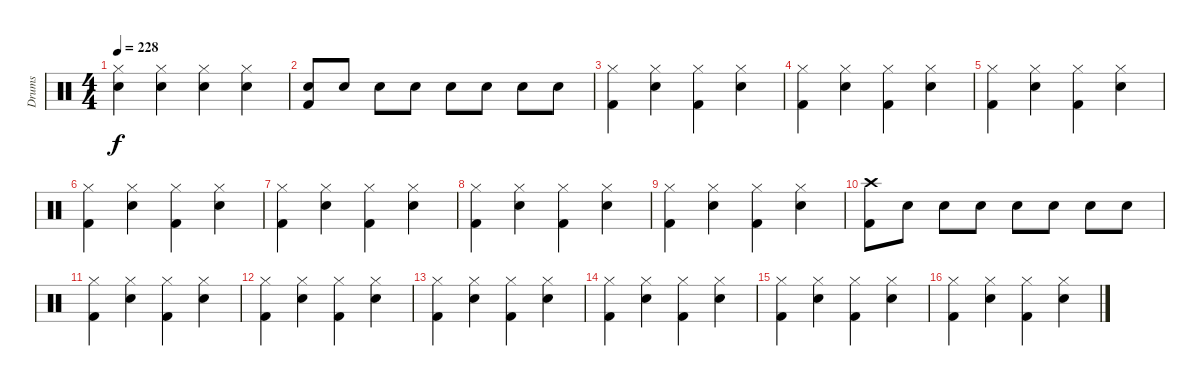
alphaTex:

\track ("Drums" "Drums") {instrument percussion}
\staff {score}
\articulation defaults
\ts (4 4)
\tempo 228
\clef neutral
\ks c
("Hi-Hat (closed)" "Electric Snare (hit)").4{dy f} ("Hi-Hat (closed)" "Electric Snare (hit)").4 ("Hi-Hat (closed)" "Electric Snare (hit)").4 ("Hi-Hat (closed)" "Electric Snare (hit)").4 |
("Electric Snare (hit)" "Kick (hit) 2").8 "Electric Snare (hit)".8 "Electric Snare (hit)".8 "Electric Snare (hit)".8 "Electric Snare (hit)".8 "Electric Snare (hit)".8 "Electric Snare (hit)".8 "Electric Snare (hit)".8 |
("Hi-Hat (closed)" "Kick (hit) 2").4 ("Hi-Hat (closed)" "Electric Snare (hit)").4 ("Hi-Hat (closed)" "Kick (hit) 2").4 ("Hi-Hat (closed)" "Electric Snare (hit)").4 |
("Hi-Hat (closed)" "Kick (hit) 2").4 ("Hi-Hat (closed)" "Electric Snare (hit)").4 ("Hi-Hat (closed)" "Kick (hit) 2").4 ("Hi-Hat (closed)" "Electric Snare (hit)").4 |
("Hi-Hat (closed)" "Kick (hit) 2").4 ("Hi-Hat (closed)" "Electric Snare (hit)").4 ("Hi-Hat (closed)" "Kick (hit) 2").4 ("Hi-Hat (closed)" "Electric Snare (hit)").4 |
("Hi-Hat (closed)" "Kick (hit) 2").4 ("Hi-Hat (closed)" "Electric Snare (hit)").4 ("Hi-Hat (closed)" "Kick (hit) 2").4 ("Hi-Hat (closed)" "Electric Snare (hit)").4 |
("Hi-Hat (closed)" "Kick (hit) 2").4 ("Hi-Hat (closed)" "Electric Snare (hit)").4 ("Hi-Hat (closed)" "Kick (hit) 2").4 ("Hi-Hat (closed)" "Electric Snare (hit)").4 |
("Hi-Hat (closed)" "Kick (hit) 2").4 ("Hi-Hat (closed)" "Electric Snare (hit)").4 ("Hi-Hat (closed)" "Kick (hit) 2").4 ("Hi-Hat (closed)" "Electric Snare (hit)").4 |
("Hi-Hat (closed)" "Kick (hit) 2").4 ("Hi-Hat (closed)" "Electric Snare (hit)").4 ("Hi-Hat (closed)" "Kick (hit) 2").4 ("Hi-Hat (closed)" "Electric Snare (hit)").4 |
("Crash high (hit)" "Kick (hit) 2").8 "Electric Snare (hit)".8 "Electric Snare (hit)".8 "Electric Snare (hit)".8 "Electric Snare (hit)".8 "Electric Snare (hit)".8 "Electric Snare (hit)".8 "Electric Snare (hit)".8 |
("Hi-Hat (closed)" "Kick (hit) 2").4 ("Hi-Hat (closed)" "Electric Snare (hit)").4 ("Hi-Hat (closed)" "Kick (hit) 2").4 ("Hi-Hat (closed)" "Electric Snare (hit)").4 |
("Hi-Hat (closed)" "Kick (hit) 2").4 ("Hi-Hat (closed)" "Electric Snare (hit)").4 ("Hi-Hat (closed)" "Kick (hit) 2").4 ("Hi-Hat (closed)" "Electric Snare (hit)").4 |
("Hi-Hat (closed)" "Kick (hit) 2").4 ("Hi-Hat (closed)" "Electric Snare (hit)").4 ("Hi-Hat (closed)" "Kick (hit) 2").4 ("Hi-Hat (closed)" "Electric Snare (hit)").4 |
("Hi-Hat (closed)" "Kick (hit) 2").4 ("Hi-Hat (closed)" "Electric Snare (hit)").4 ("Hi-Hat (closed)" "Kick (hit) 2").4 ("Hi-Hat (closed)" "Electric Snare (hit)").4 |
("Hi-Hat (closed)" "Kick (hit) 2").4 ("Hi-Hat (closed)" "Electric Snare (hit)").4 ("Hi-Hat (closed)" "Kick (hit) 2").4 ("Hi-Hat (closed)" "Electric Snare (hit)").4 |
("Hi-Hat (closed)" "Kick (hit) 2").4 ("Hi-Hat (closed)" "Electric Snare (hit)").4 ("Hi-Hat (closed)" "Kick (hit) 2").4 ("Hi-Hat (closed)" "Electric Snare (hit)").4
